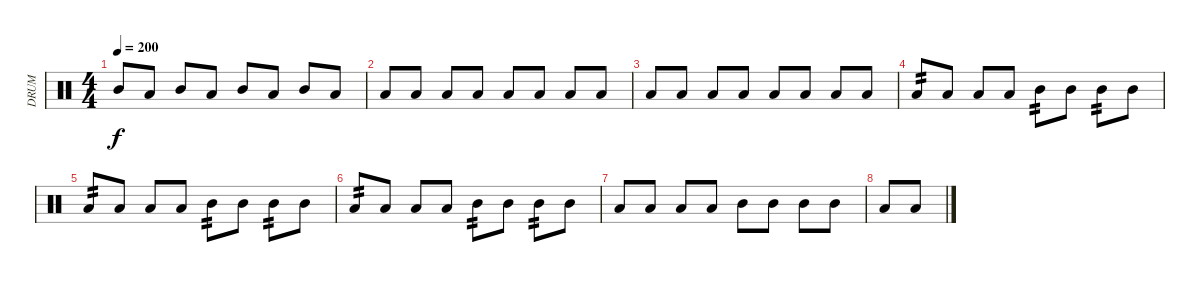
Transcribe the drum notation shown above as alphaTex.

\track ("DRUM" "DRUM") {instrument percussion}
\staff {score}
\articulation defaults
\ts (4 4)
\tempo 200
\clef neutral
\ks c "Mid Tom (hit)".8{dy f} "Low Tom (hit)".8 "Mid Tom (hit)".8 "Low Tom (hit)".8 "Mid Tom (hit)".8 "Low Tom (hit)".8 "Mid Tom (hit)".8 "Low Tom (hit)".8
|
"Low Tom (hit)".8 "Low Floor Tom (hit)".8 "Low Tom (hit)".8 "Low Floor Tom (hit)".8 "Low Tom (hit)".8 "Low Floor Tom (hit)".8 "Low Tom (hit)".8 "Low Floor Tom (hit)".8 |
"Low Tom (hit)".8 "Low Tom (hit)".8 "Low Tom (hit)".8 "Low Tom (hit)".8 "Low Tom (hit)".8 "Low Tom (hit)".8 "Low Tom (hit)".8 "Low Tom (hit)".8 |
"Low Tom (hit)".8{tp 2} "Low Tom (hit)".8 "Low Tom (hit)".8 "Low Tom (hit)".8 "Mid Tom (hit)".8{tp 2} "Mid Tom (hit)".8 "Mid Tom (hit)".8{tp 2} "Mid Tom (hit)".8 |
"Low Tom (hit)".8{tp 2} "Low Tom (hit)".8 "Low Tom (hit)".8 "Low Tom (hit)".8 "Mid Tom (hit)".8{tp 2} "Mid Tom (hit)".8 "Mid Tom (hit)".8{tp 2} "Mid Tom (hit)".8 |
"Low Tom (hit)".8{tp 2} "Low Tom (hit)".8 "Low Tom (hit)".8 "Low Tom (hit)".8 "Mid Tom (hit)".8{tp 2} "Mid Tom (hit)".8 "Mid Tom (hit)".8{tp 2} "Mid Tom (hit)".8 |
"Low Tom (hit)".8 "Low Tom (hit)".8 "Low Tom (hit)".8 "Low Tom (hit)".8 "Mid Tom (hit)".8 "Mid Tom (hit)".8 "Mid Tom (hit)".8 "Mid Tom (hit)".8 |
"Low Tom (hit)".8 "Low Tom (hit)".8
